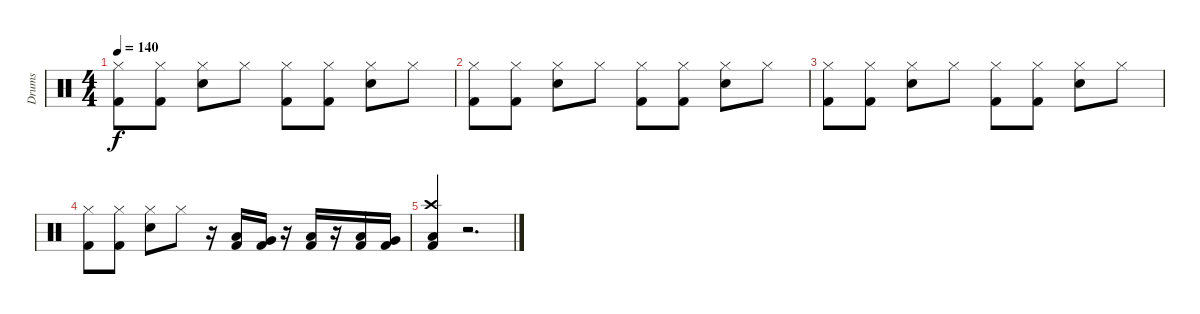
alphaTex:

\track ("Drums" "Drums") {instrument percussion}
\staff {score}
\articulation defaults
\ts (4 4)
\tempo 140
\clef neutral
\ks c
("Hi-Hat (closed)" "Kick (hit) 2").8{dy f} ("Hi-Hat (closed)" "Kick (hit) 2").8 ("Hi-Hat (closed)" "Snare (hit) 2").8 "Hi-Hat (closed)".8 ("Hi-Hat (closed)" "Kick (hit) 2").8 ("Hi-Hat (closed)" "Kick (hit) 2").8 ("Hi-Hat (closed)" "Snare (hit) 2").8 "Hi-Hat (closed)".8 |
("Hi-Hat (closed)" "Kick (hit) 2").8 ("Hi-Hat (closed)" "Kick (hit) 2").8 ("Hi-Hat (closed)" "Snare (hit) 2").8 "Hi-Hat (closed)".8 ("Hi-Hat (closed)" "Kick (hit) 2").8 ("Hi-Hat (closed)" "Kick (hit) 2").8 ("Hi-Hat (closed)" "Snare (hit) 2").8 "Hi-Hat (closed)".8 |
("Hi-Hat (closed)" "Kick (hit) 2").8 ("Hi-Hat (closed)" "Kick (hit) 2").8 ("Hi-Hat (closed)" "Snare (hit) 2").8 "Hi-Hat (closed)".8 ("Hi-Hat (closed)" "Kick (hit) 2").8 ("Hi-Hat (closed)" "Kick (hit) 2").8 ("Hi-Hat (closed)" "Snare (hit) 2").8 "Hi-Hat (closed)".8 |
("Hi-Hat (closed)" "Kick (hit) 2").8 ("Hi-Hat (closed)" "Kick (hit) 2").8 ("Hi-Hat (closed)" "Snare (hit) 2").8 "Hi-Hat (closed)".8 r.16 ("Low Tom (hit)" "Kick (hit) 2").16 ("Very Low Tom (hit)" "Kick (hit) 2").16 r.16 ("Low Tom (hit)" "Kick (hit) 2").16 r.16 ("Low Tom (hit)" "Kick (hit) 2").16 ("Very Low Tom (hit)" "Kick (hit) 2").16 |
("Crash high (hit)" "Low Floor Tom (hit)" "Kick (hit) 2").4 r.2{d}
